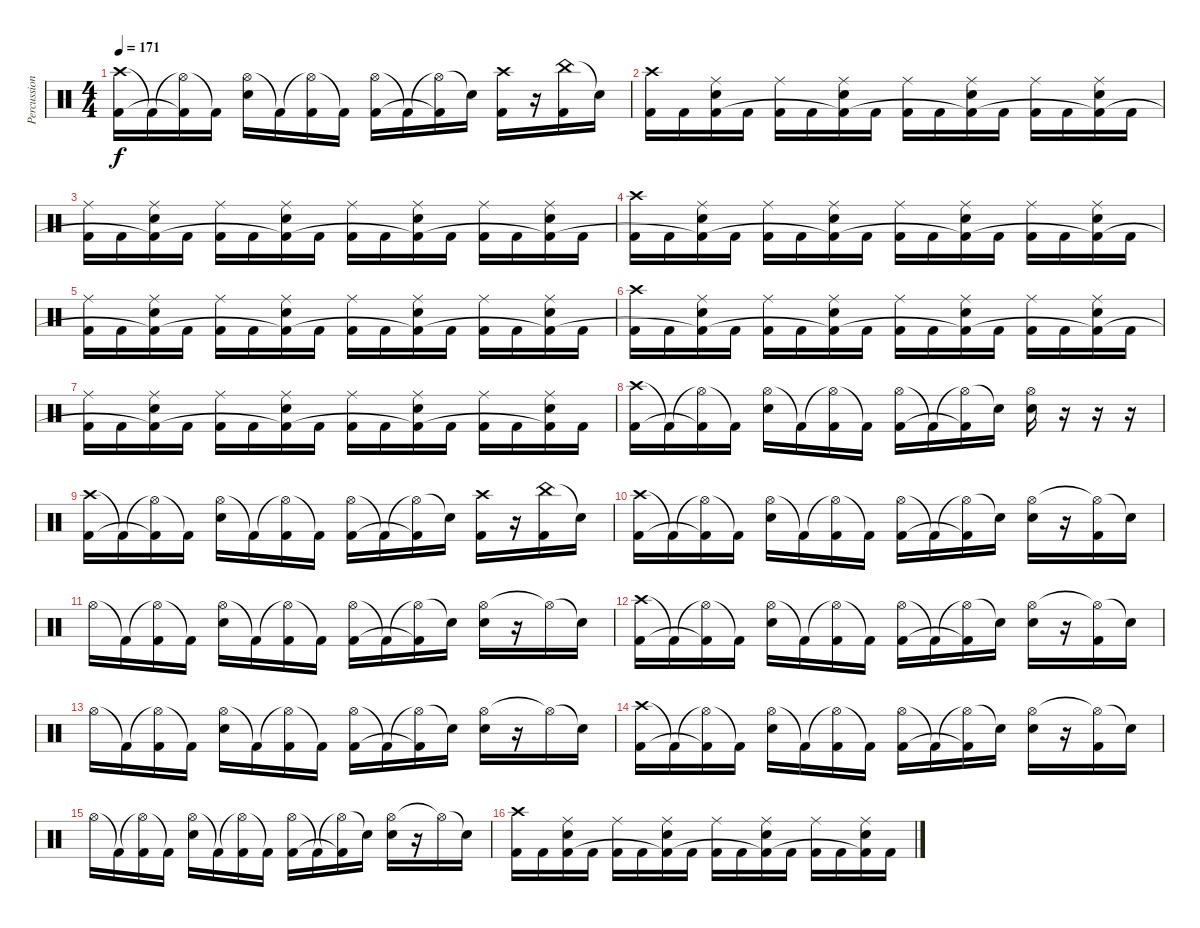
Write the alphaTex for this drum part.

\track ("Percussions" "Percussion") {instrument percussion}
\staff {score}
\articulation defaults
\ts (4 4)
\tempo 171
\clef neutral
\ks c
("Crash high (hit)" "Kick (hit) 2").16{dy f} "Kick (hit) 2"{t}.16 ("Hi-Hat (open)"{t} "Kick (hit) 2"{t}).16 "Kick (hit) 2"{t}.16 ("Hi-Hat (open)" "Electric Snare (hit)").16 "Kick (hit) 2"{t}.16 ("Hi-Hat (open)"{t} "Kick (hit) 2").16 "Kick (hit) 2"{t}.16 ("Hi-Hat (open)" "Kick (hit) 2").16 "Kick (hit) 2"{t}.16 ("Hi-Hat (open)"{t} "Kick (hit) 2"{t}).16 "Snare (hit)"{t}.16 ("Crash high (hit)" "Kick (hit) 2").16 r.16 ("China (hit)" "Kick (hit) 2").16 "Snare (hit)"{t}.16 |
("Crash high (hit)" "Kick (hit) 2").16 "Kick (hit) 2".16 ("Ride (middle)" "Electric Snare (hit)" "Kick (hit) 2"{t}).16 "Kick (hit) 2".16 ("Ride (middle)" "Kick (hit) 2").16 "Kick (hit) 2".16 ("Ride (middle)" "Electric Snare (hit)" "Kick (hit) 2"{t}).16 "Kick (hit) 2".16 ("Ride (middle)" "Kick (hit) 2").16 "Kick (hit) 2".16 ("Ride (middle)" "Electric Snare (hit)" "Kick (hit) 2"{t}).16 "Kick (hit) 2".16 ("Ride (middle)" "Kick (hit) 2").16 "Kick (hit) 2".16 ("Ride (middle)" "Electric Snare (hit)" "Kick (hit) 2"{t}).16 "Kick (hit) 2".16 |
("Ride (middle)" "Kick (hit) 2").16 "Kick (hit) 2".16 ("Ride (middle)" "Electric Snare (hit)" "Kick (hit) 2"{t}).16 "Kick (hit) 2".16 ("Ride (middle)" "Kick (hit) 2").16 "Kick (hit) 2".16 ("Ride (middle)" "Electric Snare (hit)" "Kick (hit) 2"{t}).16 "Kick (hit) 2".16 ("Ride (middle)" "Kick (hit) 2").16 "Kick (hit) 2".16 ("Ride (middle)" "Electric Snare (hit)" "Kick (hit) 2"{t}).16 "Kick (hit) 2".16 ("Ride (middle)" "Kick (hit) 2").16 "Kick (hit) 2".16 ("Ride (middle)" "Electric Snare (hit)" "Kick (hit) 2"{t}).16 "Kick (hit) 2".16 |
("Crash high (hit)" "Kick (hit) 2").16 "Kick (hit) 2".16 ("Ride (middle)" "Electric Snare (hit)" "Kick (hit) 2"{t}).16 "Kick (hit) 2".16 ("Ride (middle)" "Kick (hit) 2").16 "Kick (hit) 2".16 ("Ride (middle)" "Electric Snare (hit)" "Kick (hit) 2"{t}).16 "Kick (hit) 2".16 ("Ride (middle)" "Kick (hit) 2").16 "Kick (hit) 2".16 ("Ride (middle)" "Electric Snare (hit)" "Kick (hit) 2"{t}).16 "Kick (hit) 2".16 ("Ride (middle)" "Kick (hit) 2").16 "Kick (hit) 2".16 ("Ride (middle)" "Electric Snare (hit)" "Kick (hit) 2"{t}).16 "Kick (hit) 2".16 |
("Ride (middle)" "Kick (hit) 2").16 "Kick (hit) 2".16 ("Ride (middle)" "Electric Snare (hit)" "Kick (hit) 2"{t}).16 "Kick (hit) 2".16 ("Ride (middle)" "Kick (hit) 2").16 "Kick (hit) 2".16 ("Ride (middle)" "Electric Snare (hit)" "Kick (hit) 2"{t}).16 "Kick (hit) 2".16 ("Ride (middle)" "Kick (hit) 2").16 "Kick (hit) 2".16 ("Ride (middle)" "Electric Snare (hit)" "Kick (hit) 2"{t}).16 "Kick (hit) 2".16 ("Ride (middle)" "Kick (hit) 2").16 "Kick (hit) 2".16 ("Ride (middle)" "Electric Snare (hit)" "Kick (hit) 2"{t}).16 "Kick (hit) 2".16 |
("Crash high (hit)" "Kick (hit) 2").16 "Kick (hit) 2".16 ("Ride (middle)" "Electric Snare (hit)" "Kick (hit) 2"{t}).16 "Kick (hit) 2".16 ("Ride (middle)" "Kick (hit) 2").16 "Kick (hit) 2".16 ("Ride (middle)" "Electric Snare (hit)" "Kick (hit) 2"{t}).16 "Kick (hit) 2".16 ("Ride (middle)" "Kick (hit) 2").16 "Kick (hit) 2".16 ("Ride (middle)" "Electric Snare (hit)" "Kick (hit) 2"{t}).16 "Kick (hit) 2".16 ("Ride (middle)" "Kick (hit) 2").16 "Kick (hit) 2".16 ("Ride (middle)" "Electric Snare (hit)" "Kick (hit) 2"{t}).16 "Kick (hit) 2".16 |
("Ride (middle)" "Kick (hit) 2").16 "Kick (hit) 2".16 ("Ride (middle)" "Electric Snare (hit)" "Kick (hit) 2"{t}).16 "Kick (hit) 2".16 ("Ride (middle)" "Kick (hit) 2").16 "Kick (hit) 2".16 ("Ride (middle)" "Electric Snare (hit)" "Kick (hit) 2"{t}).16 "Kick (hit) 2".16 ("Ride (middle)" "Kick (hit) 2").16 "Kick (hit) 2".16 ("Ride (middle)" "Electric Snare (hit)" "Kick (hit) 2"{t}).16 "Kick (hit) 2".16 ("Ride (middle)" "Kick (hit) 2").16 "Kick (hit) 2".16 ("Ride (middle)" "Electric Snare (hit)" "Kick (hit) 2"{t}).16 "Kick (hit) 2".16 |
("Crash high (hit)" "Kick (hit) 2").16 "Kick (hit) 2"{t}.16 ("Hi-Hat (open)"{t} "Kick (hit) 2"{t}).16 "Kick (hit) 2"{t}.16 ("Hi-Hat (open)" "Electric Snare (hit)").16 "Kick (hit) 2"{t}.16 ("Hi-Hat (open)"{t} "Kick (hit) 2").16 "Kick (hit) 2"{t}.16 ("Hi-Hat (open)" "Kick (hit) 2").16 "Kick (hit) 2"{t}.16 ("Hi-Hat (open)"{t} "Kick (hit) 2"{t}).16 "Snare (hit)"{t}.16 ("Hi-Hat (open)" "Electric Snare (hit)").16 r.16 r.16 r.16 |
("Crash high (hit)" "Kick (hit) 2").16 "Kick (hit) 2"{t}.16 ("Hi-Hat (open)"{t} "Kick (hit) 2"{t}).16 "Kick (hit) 2"{t}.16 ("Hi-Hat (open)" "Electric Snare (hit)").16 "Kick (hit) 2"{t}.16 ("Hi-Hat (open)"{t} "Kick (hit) 2").16 "Kick (hit) 2"{t}.16 ("Hi-Hat (open)" "Kick (hit) 2").16 "Kick (hit) 2"{t}.16 ("Hi-Hat (open)"{t} "Kick (hit) 2"{t}).16 "Snare (hit)"{t}.16 ("Crash high (hit)" "Kick (hit) 2").16 r.16 ("China (hit)" "Kick (hit) 2").16 "Snare (hit)"{t}.16 |
("Crash high (hit)" "Kick (hit) 2").16 "Kick (hit) 2"{t}.16 ("Hi-Hat (open)"{t} "Kick (hit) 2"{t}).16 "Kick (hit) 2"{t}.16 ("Hi-Hat (open)" "Electric Snare (hit)").16 "Kick (hit) 2"{t}.16 ("Hi-Hat (open)"{t} "Kick (hit) 2").16 "Kick (hit) 2"{t}.16 ("Hi-Hat (open)" "Kick (hit) 2").16 "Kick (hit) 2"{t}.16 ("Hi-Hat (open)"{t} "Kick (hit) 2"{t}).16 "Snare (hit)"{t}.16 ("Hi-Hat (open)" "Electric Snare (hit)").16 r.16 ("Hi-Hat (open)"{t} "Kick (hit) 2").16 "Snare (hit)"{t}.16 |
"Hi-Hat (open)".16 "Kick (hit) 2"{t}.16 ("Hi-Hat (open)"{t} "Kick (hit) 2").16 "Kick (hit) 2"{t}.16 ("Hi-Hat (open)" "Electric Snare (hit)").16 "Kick (hit) 2"{t}.16 ("Hi-Hat (open)"{t} "Kick (hit) 2").16 "Kick (hit) 2"{t}.16 ("Hi-Hat (open)" "Kick (hit) 2").16 "Kick (hit) 2"{t}.16 ("Hi-Hat (open)"{t} "Kick (hit) 2"{t}).16 "Snare (hit)"{t}.16 ("Hi-Hat (open)" "Electric Snare (hit)").16 r.16 "Hi-Hat (open)"{t}.16 "Snare (hit)"{t}.16 |
("Crash high (hit)" "Kick (hit) 2").16 "Kick (hit) 2"{t}.16 ("Hi-Hat (open)"{t} "Kick (hit) 2"{t}).16 "Kick (hit) 2"{t}.16 ("Hi-Hat (open)" "Electric Snare (hit)").16 "Kick (hit) 2"{t}.16 ("Hi-Hat (open)"{t} "Kick (hit) 2").16 "Kick (hit) 2"{t}.16 ("Hi-Hat (open)" "Kick (hit) 2").16 "Kick (hit) 2"{t}.16 ("Hi-Hat (open)"{t} "Kick (hit) 2"{t}).16 "Snare (hit)"{t}.16 ("Hi-Hat (open)" "Electric Snare (hit)").16 r.16 ("Hi-Hat (open)"{t} "Kick (hit) 2").16 "Snare (hit)"{t}.16 |
"Hi-Hat (open)".16 "Kick (hit) 2"{t}.16 ("Hi-Hat (open)"{t} "Kick (hit) 2").16 "Kick (hit) 2"{t}.16 ("Hi-Hat (open)" "Electric Snare (hit)").16 "Kick (hit) 2"{t}.16 ("Hi-Hat (open)"{t} "Kick (hit) 2").16 "Kick (hit) 2"{t}.16 ("Hi-Hat (open)" "Kick (hit) 2").16 "Kick (hit) 2"{t}.16 ("Hi-Hat (open)"{t} "Kick (hit) 2"{t}).16 "Snare (hit)"{t}.16 ("Hi-Hat (open)" "Electric Snare (hit)").16 r.16 "Hi-Hat (open)"{t}.16 "Snare (hit)"{t}.16 |
("Crash high (hit)" "Kick (hit) 2").16 "Kick (hit) 2"{t}.16 ("Hi-Hat (open)"{t} "Kick (hit) 2"{t}).16 "Kick (hit) 2"{t}.16 ("Hi-Hat (open)" "Electric Snare (hit)").16 "Kick (hit) 2"{t}.16 ("Hi-Hat (open)"{t} "Kick (hit) 2").16 "Kick (hit) 2"{t}.16 ("Hi-Hat (open)" "Kick (hit) 2").16 "Kick (hit) 2"{t}.16 ("Hi-Hat (open)"{t} "Kick (hit) 2"{t}).16 "Snare (hit)"{t}.16 ("Hi-Hat (open)" "Electric Snare (hit)").16 r.16 ("Hi-Hat (open)"{t} "Kick (hit) 2").16 "Snare (hit)"{t}.16 |
"Hi-Hat (open)".16 "Kick (hit) 2"{t}.16 ("Hi-Hat (open)"{t} "Kick (hit) 2").16 "Kick (hit) 2"{t}.16 ("Hi-Hat (open)" "Electric Snare (hit)").16 "Kick (hit) 2"{t}.16 ("Hi-Hat (open)"{t} "Kick (hit) 2").16 "Kick (hit) 2"{t}.16 ("Hi-Hat (open)" "Kick (hit) 2").16 "Kick (hit) 2"{t}.16 ("Hi-Hat (open)"{t} "Kick (hit) 2"{t}).16 "Snare (hit)"{t}.16 ("Hi-Hat (open)" "Electric Snare (hit)").16 r.16 "Hi-Hat (open)"{t}.16 "Snare (hit)"{t}.16 |
("Crash high (hit)" "Kick (hit) 2").16 "Kick (hit) 2".16 ("Ride (middle)" "Electric Snare (hit)" "Kick (hit) 2").16 "Kick (hit) 2".16 ("Ride (middle)" "Kick (hit) 2").16 "Kick (hit) 2".16 ("Ride (middle)" "Electric Snare (hit)" "Kick (hit) 2"{t}).16 "Kick (hit) 2".16 ("Ride (middle)" "Kick (hit) 2").16 "Kick (hit) 2".16 ("Ride (middle)" "Electric Snare (hit)" "Kick (hit) 2"{t}).16 "Kick (hit) 2".16 ("Ride (middle)" "Kick (hit) 2").16 "Kick (hit) 2".16 ("Ride (middle)" "Electric Snare (hit)" "Kick (hit) 2"{t}).16 "Kick (hit) 2".16
